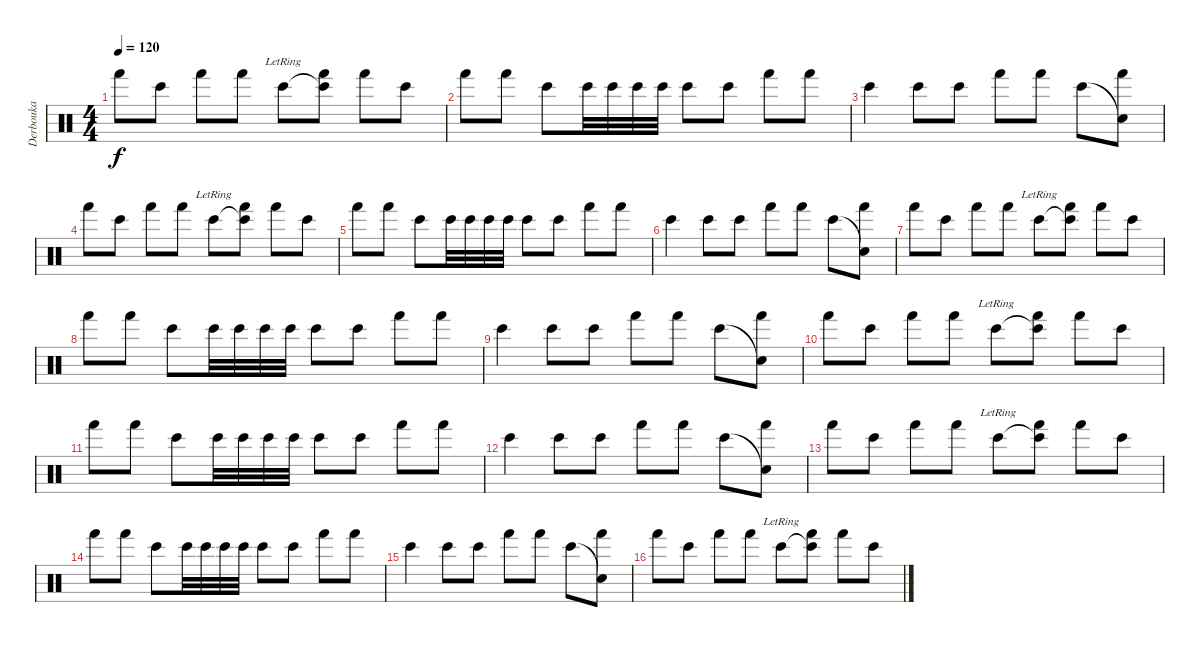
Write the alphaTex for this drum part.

\track ("Derbouka" "Derbouka") {instrument percussion}
\staff {score}
\articulation defaults
\ts (4 4)
\tempo 120
\clef neutral
\ks c "Hand (hit)".8{dy f} "Bongo High (hit)".8 "Hand (hit)".8 "Hand (hit)".8 "Bongo High (hit)"{lr}.8
("Bongo High (hit)"{t} "Hand (hit)").8 "Hand (hit)".8 "Bongo High (hit)".8 |
"Hand (hit)".8 "Hand (hit)".8 "Bongo High (hit)".8 "Bongo High (hit)".32 "Bongo High (hit)".32 "Bongo High (hit)".32 "Bongo High (hit)".32 "Bongo High (hit)".8 "Bongo High (hit)".8 "Hand (hit)".8 "Hand (hit)".8 |
"Bongo High (hit)".4 "Bongo High (hit)".8 "Bongo High (hit)".8 "Hand (hit)".8 "Hand (hit)".8 "Bongo High (hit)".8 ("Snare (hit)"{t} "Hand (hit)").8 |
"Hand (hit)".8 "Bongo High (hit)".8 "Hand (hit)".8 "Hand (hit)".8 "Bongo High (hit)"{lr}.8 ("Bongo High (hit)"{t} "Hand (hit)").8 "Hand (hit)".8 "Bongo High (hit)".8 |
"Hand (hit)".8 "Hand (hit)".8 "Bongo High (hit)".8 "Bongo High (hit)".32 "Bongo High (hit)".32 "Bongo High (hit)".32 "Bongo High (hit)".32 "Bongo High (hit)".8 "Bongo High (hit)".8 "Hand (hit)".8 "Hand (hit)".8 |
"Bongo High (hit)".4 "Bongo High (hit)".8 "Bongo High (hit)".8 "Hand (hit)".8 "Hand (hit)".8 "Bongo High (hit)".8 ("Snare (hit)"{t} "Hand (hit)").8 |
"Hand (hit)".8 "Bongo High (hit)".8 "Hand (hit)".8 "Hand (hit)".8 "Bongo High (hit)"{lr}.8 ("Bongo High (hit)"{t} "Hand (hit)").8 "Hand (hit)".8 "Bongo High (hit)".8 |
"Hand (hit)".8 "Hand (hit)".8 "Bongo High (hit)".8 "Bongo High (hit)".32 "Bongo High (hit)".32 "Bongo High (hit)".32 "Bongo High (hit)".32 "Bongo High (hit)".8 "Bongo High (hit)".8 "Hand (hit)".8 "Hand (hit)".8 |
"Bongo High (hit)".4 "Bongo High (hit)".8 "Bongo High (hit)".8 "Hand (hit)".8 "Hand (hit)".8 "Bongo High (hit)".8 ("Snare (hit)"{t} "Hand (hit)").8 |
"Hand (hit)".8 "Bongo High (hit)".8 "Hand (hit)".8 "Hand (hit)".8 "Bongo High (hit)"{lr}.8 ("Bongo High (hit)"{t} "Hand (hit)").8 "Hand (hit)".8 "Bongo High (hit)".8 |
"Hand (hit)".8 "Hand (hit)".8 "Bongo High (hit)".8 "Bongo High (hit)".32 "Bongo High (hit)".32 "Bongo High (hit)".32 "Bongo High (hit)".32 "Bongo High (hit)".8 "Bongo High (hit)".8 "Hand (hit)".8 "Hand (hit)".8 |
"Bongo High (hit)".4 "Bongo High (hit)".8 "Bongo High (hit)".8 "Hand (hit)".8 "Hand (hit)".8 "Bongo High (hit)".8 ("Snare (hit)"{t} "Hand (hit)").8 |
"Hand (hit)".8 "Bongo High (hit)".8 "Hand (hit)".8 "Hand (hit)".8 "Bongo High (hit)"{lr}.8 ("Bongo High (hit)"{t} "Hand (hit)").8 "Hand (hit)".8 "Bongo High (hit)".8 |
"Hand (hit)".8 "Hand (hit)".8 "Bongo High (hit)".8 "Bongo High (hit)".32 "Bongo High (hit)".32 "Bongo High (hit)".32 "Bongo High (hit)".32 "Bongo High (hit)".8 "Bongo High (hit)".8 "Hand (hit)".8 "Hand (hit)".8 |
"Bongo High (hit)".4 "Bongo High (hit)".8 "Bongo High (hit)".8 "Hand (hit)".8 "Hand (hit)".8 "Bongo High (hit)".8 ("Snare (hit)"{t} "Hand (hit)").8 |
"Hand (hit)".8 "Bongo High (hit)".8 "Hand (hit)".8 "Hand (hit)".8 "Bongo High (hit)"{lr}.8 ("Bongo High (hit)"{t} "Hand (hit)").8 "Hand (hit)".8 "Bongo High (hit)".8
